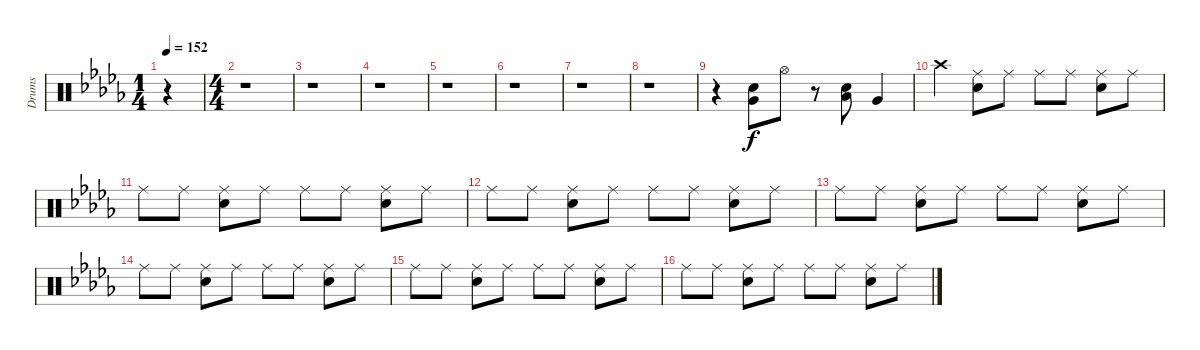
\track ("Drums" "Drums") {instrument percussion}
\staff {score}
\articulation defaults
\ts (1 4)
\tempo 152
\clef neutral
\ks db
r.4{dy f} |
\ts (4 4)
r.1 |
r.1 |
r.1 |
r.1 |
r.1 |
r.1 |
r.1 |
r.4 ("Snare (hit) 2" "Very Low Tom (hit)").8 "Hi-Hat (open)"{tr (42 16)}.8 r.8 ("Snare (hit) 2" "Low Tom (hit)").8 "Very Low Tom (hit)".4 |
"Crash high (hit)".4 ("Ride (middle)" "Snare (hit) 2").8 "Ride (middle)".8 "Ride (middle)".8 "Ride (middle)".8 ("Ride (middle)" "Snare (hit) 2").8 "Ride (middle)".8 |
"Ride (middle)".8 "Ride (middle)".8 ("Ride (middle)" "Snare (hit) 2").8 "Ride (middle)".8 "Ride (middle)".8 "Ride (middle)".8 ("Ride (middle)" "Snare (hit) 2").8 "Ride (middle)".8 |
"Ride (middle)".8 "Ride (middle)".8 ("Ride (middle)" "Snare (hit) 2").8 "Ride (middle)".8 "Ride (middle)".8 "Ride (middle)".8 ("Ride (middle)" "Snare (hit) 2").8 "Ride (middle)".8 |
"Ride (middle)".8 "Ride (middle)".8 ("Ride (middle)" "Snare (hit) 2").8 "Ride (middle)".8 "Ride (middle)".8 "Ride (middle)".8 ("Ride (middle)" "Snare (hit) 2").8 "Ride (middle)".8 |
"Ride (middle)".8 "Ride (middle)".8 ("Ride (middle)" "Snare (hit) 2").8 "Ride (middle)".8 "Ride (middle)".8 "Ride (middle)".8 ("Ride (middle)" "Snare (hit) 2").8 "Ride (middle)".8 |
"Ride (middle)".8 "Ride (middle)".8 ("Ride (middle)" "Snare (hit) 2").8 "Ride (middle)".8 "Ride (middle)".8 "Ride (middle)".8 ("Ride (middle)" "Snare (hit) 2").8 "Ride (middle)".8 |
"Ride (middle)".8 "Ride (middle)".8 ("Ride (middle)" "Snare (hit) 2").8 "Ride (middle)".8 "Ride (middle)".8 "Ride (middle)".8 ("Ride (middle)" "Snare (hit) 2").8 "Ride (middle)".8
